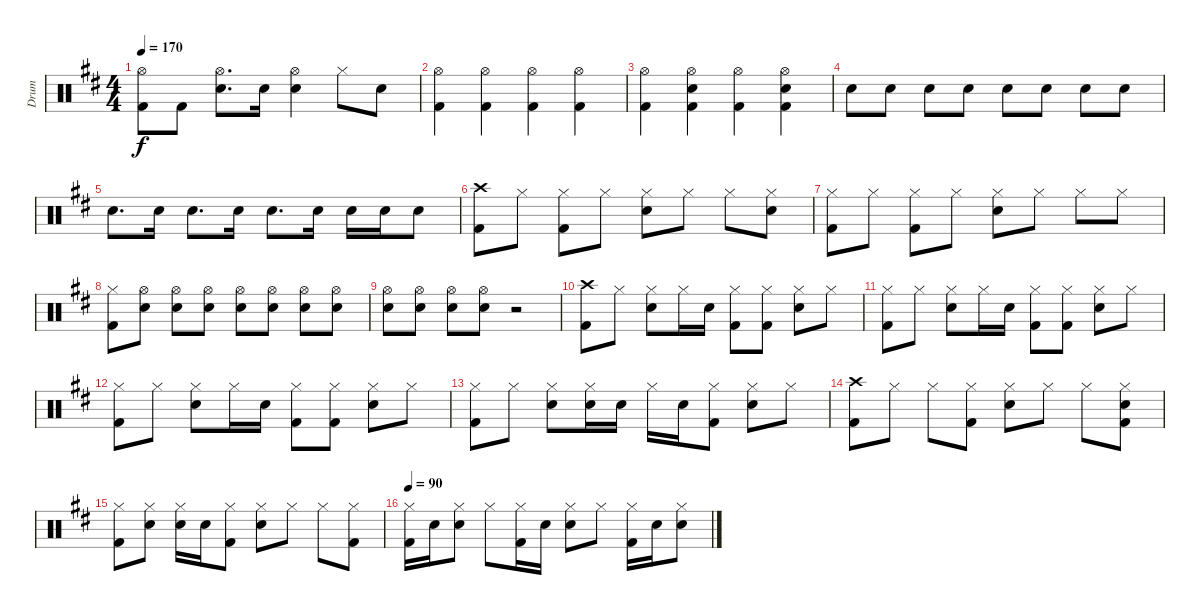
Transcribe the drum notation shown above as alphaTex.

\track ("Drum" "Drum") {instrument percussion}
\staff {score}
\articulation defaults
\ts (4 4)
\tempo 170
\clef neutral
\ks d
("Hi-Hat (open)" "Kick (hit) 2").8{dy f} "Kick (hit) 2".8 ("Hi-Hat (open)" "Electric Snare (hit)").8{d} "Electric Snare (hit)".16 ("Hi-Hat (open)" "Electric Snare (hit)").4 "Hi-Hat (closed)".8 "Electric Snare (hit)".8 |
("Hi-Hat (open)" "Kick (hit) 2").4 ("Hi-Hat (open)" "Kick (hit) 2").4 ("Hi-Hat (open)" "Kick (hit) 2").4 ("Hi-Hat (open)" "Kick (hit) 2").4 |
("Hi-Hat (open)" "Kick (hit) 2").4 ("Hi-Hat (open)" "Electric Snare (hit)" "Kick (hit) 2").4 ("Hi-Hat (open)" "Kick (hit) 2").4 ("Hi-Hat (open)" "Electric Snare (hit)" "Kick (hit) 2").4 |
"Electric Snare (hit)".8 "Electric Snare (hit)".8 "Electric Snare (hit)".8 "Electric Snare (hit)".8 "Electric Snare (hit)".8 "Electric Snare (hit)".8 "Electric Snare (hit)".8 "Electric Snare (hit)".8 |
"Electric Snare (hit)".8{d} "Electric Snare (hit)".16 "Electric Snare (hit)".8{d} "Electric Snare (hit)".16 "Electric Snare (hit)".8{d} "Electric Snare (hit)".16 "Electric Snare (hit)".16 "Electric Snare (hit)".16 "Electric Snare (hit)".8 |
("Crash high (hit)" "Kick (hit) 2").8 "Hi-Hat (closed)".8 ("Hi-Hat (closed)" "Kick (hit) 2").8 "Hi-Hat (closed)".8 ("Hi-Hat (closed)" "Electric Snare (hit)").8 "Hi-Hat (closed)".8 "Hi-Hat (closed)".8 ("Hi-Hat (closed)" "Electric Snare (hit)").8 |
("Hi-Hat (closed)" "Kick (hit) 2").8 "Hi-Hat (closed)".8 ("Hi-Hat (closed)" "Kick (hit) 2").8 "Hi-Hat (closed)".8 ("Hi-Hat (closed)" "Electric Snare (hit)").8 "Hi-Hat (closed)".8 "Hi-Hat (closed)".8 "Hi-Hat (closed)".8 |
("Hi-Hat (closed)" "Kick (hit) 2").8 ("Hi-Hat (open)" "Electric Snare (hit)").8 ("Hi-Hat (open)" "Electric Snare (hit)").8 ("Hi-Hat (open)" "Electric Snare (hit)").8 ("Hi-Hat (open)" "Electric Snare (hit)").8 ("Hi-Hat (open)" "Electric Snare (hit)").8 ("Hi-Hat (open)" "Electric Snare (hit)").8 ("Hi-Hat (open)" "Electric Snare (hit)").8 |
("Hi-Hat (open)" "Electric Snare (hit)").8 ("Hi-Hat (open)" "Electric Snare (hit)").8 ("Hi-Hat (open)" "Electric Snare (hit)").8 ("Hi-Hat (open)" "Electric Snare (hit)").8 r.2 |
("Crash high (hit)" "Kick (hit) 2").8 "Hi-Hat (closed)".8 ("Hi-Hat (closed)" "Electric Snare (hit)").8 "Hi-Hat (closed)".16 "Electric Snare (hit)".16 ("Hi-Hat (closed)" "Kick (hit) 2").8 ("Hi-Hat (closed)" "Kick (hit) 2").8 ("Hi-Hat (closed)" "Electric Snare (hit)").8 "Hi-Hat (closed)".8 |
("Hi-Hat (closed)" "Kick (hit) 2").8 "Hi-Hat (closed)".8 ("Hi-Hat (closed)" "Electric Snare (hit)").8 "Hi-Hat (closed)".16 "Electric Snare (hit)".16 ("Hi-Hat (closed)" "Kick (hit) 2").8 ("Hi-Hat (closed)" "Kick (hit) 2").8 ("Hi-Hat (closed)" "Electric Snare (hit)").8 "Hi-Hat (closed)".8 |
("Hi-Hat (closed)" "Kick (hit) 2").8 "Hi-Hat (closed)".8 ("Hi-Hat (closed)" "Electric Snare (hit)").8 "Hi-Hat (closed)".16 "Electric Snare (hit)".16 ("Hi-Hat (closed)" "Kick (hit) 2").8 ("Hi-Hat (closed)" "Kick (hit) 2").8 ("Hi-Hat (closed)" "Electric Snare (hit)").8 "Hi-Hat (closed)".8 |
("Hi-Hat (closed)" "Kick (hit) 2").8 "Hi-Hat (closed)".8 ("Hi-Hat (closed)" "Electric Snare (hit)").8 ("Hi-Hat (closed)" "Electric Snare (hit)").16 "Electric Snare (hit)".16 "Hi-Hat (closed)".16 "Electric Snare (hit)".16 ("Hi-Hat (closed)" "Kick (hit) 2").8 ("Hi-Hat (closed)" "Electric Snare (hit)").8 "Hi-Hat (closed)".8 |
("Crash high (hit)" "Kick (hit) 2").8 "Hi-Hat (closed)".8 "Hi-Hat (closed)".8 ("Hi-Hat (closed)" "Kick (hit) 2").8 ("Hi-Hat (closed)" "Electric Snare (hit)").8 "Hi-Hat (closed)".8 "Hi-Hat (closed)".8 ("Hi-Hat (closed)" "Electric Snare (hit)" "Kick (hit) 2").8 |
("Hi-Hat (closed)" "Kick (hit) 2").8 ("Hi-Hat (closed)" "Electric Snare (hit)").8 ("Hi-Hat (closed)" "Electric Snare (hit)").16 "Electric Snare (hit)".16 ("Hi-Hat (closed)" "Kick (hit) 2").8 ("Hi-Hat (closed)" "Electric Snare (hit)").8 "Hi-Hat (closed)".8 "Hi-Hat (closed)".8 ("Hi-Hat (closed)" "Kick (hit) 2").8 |
\tempo 150
\tempo 90
("Hi-Hat (closed)" "Kick (hit) 2").16 "Electric Snare (hit)".16 ("Hi-Hat (closed)" "Electric Snare (hit)").8 "Hi-Hat (closed)".8 ("Hi-Hat (closed)" "Kick (hit) 2").16 "Electric Snare (hit)".16 ("Hi-Hat (closed)" "Electric Snare (hit)").8 "Hi-Hat (closed)".8 ("Hi-Hat (closed)" "Kick (hit) 2").16 "Electric Snare (hit)".16 ("Hi-Hat (closed)" "Electric Snare (hit)").8
